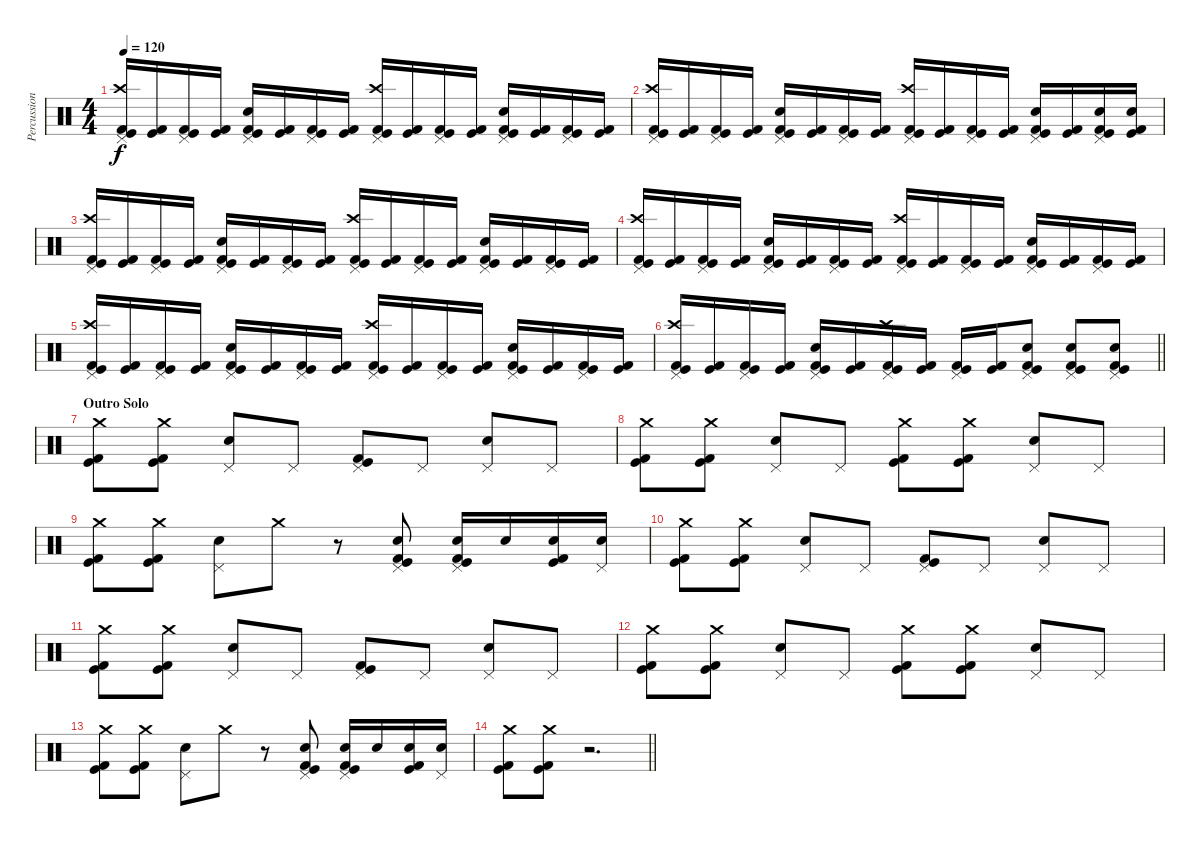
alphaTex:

\track ("Percussion" "Percussion") {instrument percussion}
\staff {score}
\articulation defaults
\ts (4 4)
\tempo 120
\clef neutral
\ks c
("Pedal Hi-Hat (hit)" "Crash high (hit)" "Kick (hit)" "Kick (hit) 2").16{dy f} ("Kick (hit)" "Kick (hit) 2").16 ("Pedal Hi-Hat (hit)" "Kick (hit)" "Kick (hit) 2").16 ("Kick (hit)" "Kick (hit) 2").16 ("Pedal Hi-Hat (hit)" "Electric Snare (hit)" "Kick (hit)" "Kick (hit) 2").16 ("Kick (hit)" "Kick (hit) 2").16 ("Pedal Hi-Hat (hit)" "Kick (hit)" "Kick (hit) 2").16 ("Kick (hit)" "Kick (hit) 2").16 ("Pedal Hi-Hat (hit)" "Crash high (hit)" "Kick (hit)" "Kick (hit) 2").16 ("Kick (hit)" "Kick (hit) 2").16 ("Pedal Hi-Hat (hit)" "Kick (hit)" "Kick (hit) 2").16 ("Kick (hit)" "Kick (hit) 2").16 ("Pedal Hi-Hat (hit)" "Electric Snare (hit)" "Kick (hit)" "Kick (hit) 2").16 ("Kick (hit)" "Kick (hit) 2").16 ("Pedal Hi-Hat (hit)" "Kick (hit)" "Kick (hit) 2").16 ("Kick (hit)" "Kick (hit) 2").16 |
("Pedal Hi-Hat (hit)" "Crash high (hit)" "Kick (hit)" "Kick (hit) 2").16 ("Kick (hit)" "Kick (hit) 2").16 ("Pedal Hi-Hat (hit)" "Kick (hit)" "Kick (hit) 2").16 ("Kick (hit)" "Kick (hit) 2").16 ("Pedal Hi-Hat (hit)" "Electric Snare (hit)" "Kick (hit)" "Kick (hit) 2").16 ("Kick (hit)" "Kick (hit) 2").16 ("Pedal Hi-Hat (hit)" "Kick (hit)" "Kick (hit) 2").16 ("Kick (hit)" "Kick (hit) 2").16 ("Pedal Hi-Hat (hit)" "Crash high (hit)" "Kick (hit)" "Kick (hit) 2").16 ("Kick (hit)" "Kick (hit) 2").16 ("Pedal Hi-Hat (hit)" "Kick (hit)" "Kick (hit) 2").16 ("Kick (hit)" "Kick (hit) 2").16 ("Pedal Hi-Hat (hit)" "Electric Snare (hit)" "Kick (hit)" "Kick (hit) 2").16 ("Kick (hit)" "Kick (hit) 2").16 ("Pedal Hi-Hat (hit)" "Electric Snare (hit)" "Kick (hit)" "Kick (hit) 2").16 ("Electric Snare (hit)" "Kick (hit)" "Kick (hit) 2").16 |
("Pedal Hi-Hat (hit)" "Crash high (hit)" "Kick (hit)" "Kick (hit) 2").16 ("Kick (hit)" "Kick (hit) 2").16 ("Pedal Hi-Hat (hit)" "Kick (hit)" "Kick (hit) 2").16 ("Kick (hit)" "Kick (hit) 2").16 ("Pedal Hi-Hat (hit)" "Electric Snare (hit)" "Kick (hit)" "Kick (hit) 2").16 ("Kick (hit)" "Kick (hit) 2").16 ("Pedal Hi-Hat (hit)" "Kick (hit)" "Kick (hit) 2").16 ("Kick (hit)" "Kick (hit) 2").16 ("Pedal Hi-Hat (hit)" "Crash high (hit)" "Kick (hit)" "Kick (hit) 2").16 ("Kick (hit)" "Kick (hit) 2").16 ("Pedal Hi-Hat (hit)" "Kick (hit)" "Kick (hit) 2").16 ("Kick (hit)" "Kick (hit) 2").16 ("Pedal Hi-Hat (hit)" "Electric Snare (hit)" "Kick (hit)" "Kick (hit) 2").16 ("Kick (hit)" "Kick (hit) 2").16 ("Pedal Hi-Hat (hit)" "Kick (hit)" "Kick (hit) 2").16 ("Kick (hit)" "Kick (hit) 2").16 |
("Pedal Hi-Hat (hit)" "Crash high (hit)" "Kick (hit)" "Kick (hit) 2").16 ("Kick (hit)" "Kick (hit) 2").16 ("Pedal Hi-Hat (hit)" "Kick (hit)" "Kick (hit) 2").16 ("Kick (hit)" "Kick (hit) 2").16 ("Pedal Hi-Hat (hit)" "Electric Snare (hit)" "Kick (hit)" "Kick (hit) 2").16 ("Kick (hit)" "Kick (hit) 2").16 ("Pedal Hi-Hat (hit)" "Kick (hit)" "Kick (hit) 2").16 ("Kick (hit)" "Kick (hit) 2").16 ("Pedal Hi-Hat (hit)" "Crash high (hit)" "Kick (hit)" "Kick (hit) 2").16 ("Kick (hit)" "Kick (hit) 2").16 ("Pedal Hi-Hat (hit)" "Kick (hit)" "Kick (hit) 2").16 ("Kick (hit)" "Kick (hit) 2").16 ("Pedal Hi-Hat (hit)" "Electric Snare (hit)" "Kick (hit)" "Kick (hit) 2").16 ("Kick (hit)" "Kick (hit) 2").16 ("Pedal Hi-Hat (hit)" "Kick (hit)" "Kick (hit) 2").16 ("Kick (hit)" "Kick (hit) 2").16 |
("Pedal Hi-Hat (hit)" "Crash high (hit)" "Kick (hit)" "Kick (hit) 2").16 ("Kick (hit)" "Kick (hit) 2").16 ("Pedal Hi-Hat (hit)" "Kick (hit)" "Kick (hit) 2").16 ("Kick (hit)" "Kick (hit) 2").16 ("Pedal Hi-Hat (hit)" "Electric Snare (hit)" "Kick (hit)" "Kick (hit) 2").16 ("Kick (hit)" "Kick (hit) 2").16 ("Pedal Hi-Hat (hit)" "Kick (hit)" "Kick (hit) 2").16 ("Kick (hit)" "Kick (hit) 2").16 ("Pedal Hi-Hat (hit)" "Crash high (hit)" "Kick (hit)" "Kick (hit) 2").16 ("Kick (hit)" "Kick (hit) 2").16 ("Pedal Hi-Hat (hit)" "Kick (hit)" "Kick (hit) 2").16 ("Kick (hit)" "Kick (hit) 2").16 ("Pedal Hi-Hat (hit)" "Electric Snare (hit)" "Kick (hit)" "Kick (hit) 2").16 ("Kick (hit)" "Kick (hit) 2").16 ("Pedal Hi-Hat (hit)" "Kick (hit)" "Kick (hit) 2").16 ("Kick (hit)" "Kick (hit) 2").16 |
\barLineRight lightlight
("Pedal Hi-Hat (hit)" "Crash high (hit)" "Kick (hit)" "Kick (hit) 2").16 ("Kick (hit)" "Kick (hit) 2").16 ("Pedal Hi-Hat (hit)" "Kick (hit)" "Kick (hit) 2").16 ("Kick (hit)" "Kick (hit) 2").16 ("Pedal Hi-Hat (hit)" "Electric Snare (hit)" "Kick (hit)" "Kick (hit) 2").16 ("Kick (hit)" "Kick (hit) 2").16 ("Pedal Hi-Hat (hit)" "Crash high (hit)" "Kick (hit)" "Kick (hit) 2").16 ("Kick (hit)" "Kick (hit) 2").16 ("Pedal Hi-Hat (hit)" "Kick (hit)" "Kick (hit) 2").16 ("Kick (hit)" "Kick (hit) 2").16 ("Pedal Hi-Hat (hit)" "Electric Snare (hit)" "Kick (hit)" "Kick (hit) 2").8 ("Pedal Hi-Hat (hit)" "Electric Snare (hit)" "Kick (hit)" "Kick (hit) 2").8 ("Pedal Hi-Hat (hit)" "Electric Snare (hit)" "Kick (hit)" "Kick (hit) 2").8 |
\section ("" "Outro Solo")
("Crash medium (hit)" "Kick (hit)" "Kick (hit) 2").8 ("Crash medium (hit)" "Kick (hit)" "Kick (hit) 2").8 ("Pedal Hi-Hat (hit)" "Electric Snare (hit)").8 "Pedal Hi-Hat (hit)".8 ("Pedal Hi-Hat (hit)" "Kick (hit)" "Kick (hit) 2").8 "Pedal Hi-Hat (hit)".8 ("Pedal Hi-Hat (hit)" "Electric Snare (hit)").8 "Pedal Hi-Hat (hit)".8 |
("Crash medium (hit)" "Kick (hit)" "Kick (hit) 2").8 ("Crash medium (hit)" "Kick (hit)" "Kick (hit) 2").8 ("Pedal Hi-Hat (hit)" "Electric Snare (hit)").8 "Pedal Hi-Hat (hit)".8 ("Crash medium (hit)" "Kick (hit)" "Kick (hit) 2").8 ("Crash medium (hit)" "Kick (hit)" "Kick (hit) 2").8 ("Pedal Hi-Hat (hit)" "Electric Snare (hit)").8 "Pedal Hi-Hat (hit)".8 |
("Crash medium (hit)" "Kick (hit)" "Kick (hit) 2").8 ("Crash medium (hit)" "Kick (hit)" "Kick (hit) 2").8 ("Pedal Hi-Hat (hit)" "Electric Snare (hit)").8 "Crash medium (hit)".8 r.8 ("Pedal Hi-Hat (hit)" "Electric Snare (hit)" "Kick (hit)" "Kick (hit) 2").8 ("Pedal Hi-Hat (hit)" "Electric Snare (hit)" "Kick (hit)" "Kick (hit) 2").16 "Electric Snare (hit)".16 ("Electric Snare (hit)" "Kick (hit)" "Kick (hit) 2").16 ("Pedal Hi-Hat (hit)" "Electric Snare (hit)").16 |
("Crash medium (hit)" "Kick (hit)" "Kick (hit) 2").8 ("Crash medium (hit)" "Kick (hit)" "Kick (hit) 2").8 ("Pedal Hi-Hat (hit)" "Electric Snare (hit)").8 "Pedal Hi-Hat (hit)".8 ("Pedal Hi-Hat (hit)" "Kick (hit)" "Kick (hit) 2").8 "Pedal Hi-Hat (hit)".8 ("Pedal Hi-Hat (hit)" "Electric Snare (hit)").8 "Pedal Hi-Hat (hit)".8 |
("Crash medium (hit)" "Kick (hit)" "Kick (hit) 2").8 ("Crash medium (hit)" "Kick (hit)" "Kick (hit) 2").8 ("Pedal Hi-Hat (hit)" "Electric Snare (hit)").8 "Pedal Hi-Hat (hit)".8 ("Pedal Hi-Hat (hit)" "Kick (hit)" "Kick (hit) 2").8 "Pedal Hi-Hat (hit)".8 ("Pedal Hi-Hat (hit)" "Electric Snare (hit)").8 "Pedal Hi-Hat (hit)".8 |
("Crash medium (hit)" "Kick (hit)" "Kick (hit) 2").8 ("Crash medium (hit)" "Kick (hit)" "Kick (hit) 2").8 ("Pedal Hi-Hat (hit)" "Electric Snare (hit)").8 "Pedal Hi-Hat (hit)".8 ("Crash medium (hit)" "Kick (hit)" "Kick (hit) 2").8 ("Crash medium (hit)" "Kick (hit)" "Kick (hit) 2").8 ("Pedal Hi-Hat (hit)" "Electric Snare (hit)").8 "Pedal Hi-Hat (hit)".8 |
("Crash medium (hit)" "Kick (hit)" "Kick (hit) 2").8 ("Crash medium (hit)" "Kick (hit)" "Kick (hit) 2").8 ("Pedal Hi-Hat (hit)" "Electric Snare (hit)").8 "Crash medium (hit)".8 r.8 ("Pedal Hi-Hat (hit)" "Electric Snare (hit)" "Kick (hit)" "Kick (hit) 2").8 ("Pedal Hi-Hat (hit)" "Electric Snare (hit)" "Kick (hit)" "Kick (hit) 2").16 "Electric Snare (hit)".16 ("Electric Snare (hit)" "Kick (hit)" "Kick (hit) 2").16 ("Pedal Hi-Hat (hit)" "Electric Snare (hit)").16 |
\barLineRight lightlight
("Crash medium (hit)" "Kick (hit)" "Kick (hit) 2").8 ("Crash medium (hit)" "Kick (hit)" "Kick (hit) 2").8 r.2{d}
